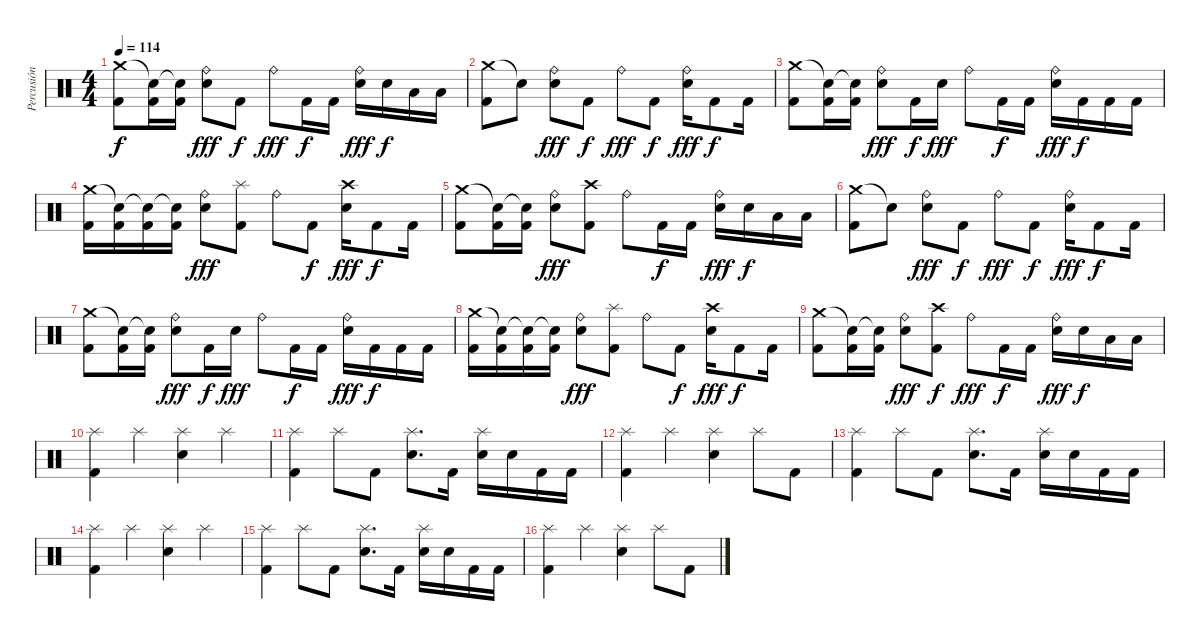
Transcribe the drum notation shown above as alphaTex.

\track ("Percusión" "Percusión") {instrument percussion}
\staff {score}
\articulation defaults
\ts (4 4)
\tempo 114
\clef neutral
\ks c
("Crash medium (hit)" "Kick (hit) 2").8{dy f} ("Snare (hit)"{t} "Kick (hit) 2").16 ("Snare (hit)"{t} "Kick (hit) 2").16 ("Ride (bell)" "Snare (hit) 2").8{dy fff} "Kick (hit) 2".8{dy f} "Ride (bell)".8{dy fff} "Kick (hit) 2".16{dy f} "Kick (hit) 2".16 ("Ride (bell)" "Snare (hit) 2").16{dy fff} "Snare (hit) 2".16{dy f} "Low Floor Tom (hit)".16 "Low Floor Tom (hit)".16 |
("Crash medium (hit)" "Kick (hit) 2").8 "Snare (hit)"{t}.8 ("Ride (bell)" "Snare (hit) 2").8{dy fff} "Kick (hit) 2".8{dy f} "Ride (bell)".8{dy fff} "Kick (hit) 2".8{dy f} ("Ride (bell)" "Snare (hit) 2").16{dy fff} "Kick (hit) 2".8{dy f} "Kick (hit) 2".16 |
("Crash medium (hit)" "Kick (hit) 2").8 ("Snare (hit)"{t} "Kick (hit) 2").16 ("Snare (hit)"{t} "Kick (hit) 2").16 ("Ride (bell)" "Snare (hit) 2").8{dy fff} "Kick (hit) 2".16{dy f} "Snare (hit) 2".16{dy fff} "Ride (bell)".8 "Kick (hit) 2".16{dy f} "Kick (hit) 2".16 ("Ride (bell)" "Snare (hit) 2").16{dy fff} "Kick (hit) 2".16{dy f} "Kick (hit) 2".16 "Kick (hit) 2".16 |
("Crash medium (hit)" "Kick (hit) 2").16 ("Snare (hit)"{t} "Kick (hit) 2").16 ("Snare (hit)"{t} "Kick (hit) 2").16 ("Snare (hit)"{t} "Kick (hit) 2").16 ("Ride (bell)" "Snare (hit) 2").8{dy fff} ("Splash (hit)" "Kick (hit) 2").8 "Ride (bell)".8 "Kick (hit) 2".8{dy f} ("Crash high (hit)" "Snare (hit) 2").16{dy fff} "Kick (hit) 2".8{dy f} "Kick (hit) 2".16 |
("Crash medium (hit)" "Kick (hit) 2").8 ("Snare (hit)"{t} "Kick (hit) 2").16 ("Snare (hit)"{t} "Kick (hit) 2").16 ("Ride (bell)" "Snare (hit) 2").8{dy fff} ("Crash high (hit)" "Kick (hit) 2").8 "Ride (bell)".8 "Kick (hit) 2".16{dy f} "Kick (hit) 2".16 ("Ride (bell)" "Snare (hit) 2").16{dy fff} "Snare (hit) 2".16{dy f} "Low Floor Tom (hit)".16 "Low Floor Tom (hit)".16 |
("Crash medium (hit)" "Kick (hit) 2").8 "Snare (hit)"{t}.8 ("Ride (bell)" "Snare (hit) 2").8{dy fff} "Kick (hit) 2".8{dy f} "Ride (bell)".8{dy fff} "Kick (hit) 2".8{dy f} ("Ride (bell)" "Snare (hit) 2").16{dy fff} "Kick (hit) 2".8{dy f} "Kick (hit) 2".16 |
("Crash medium (hit)" "Kick (hit) 2").8 ("Snare (hit)"{t} "Kick (hit) 2").16 ("Snare (hit)"{t} "Kick (hit) 2").16 ("Ride (bell)" "Snare (hit) 2").8{dy fff} "Kick (hit) 2".16{dy f} "Snare (hit) 2".16{dy fff} "Ride (bell)".8 "Kick (hit) 2".16{dy f} "Kick (hit) 2".16 ("Ride (bell)" "Snare (hit) 2").16{dy fff} "Kick (hit) 2".16{dy f} "Kick (hit) 2".16 "Kick (hit) 2".16 |
("Crash medium (hit)" "Kick (hit) 2").16 ("Snare (hit)"{t} "Kick (hit) 2").16 ("Snare (hit)"{t} "Kick (hit) 2").16 ("Snare (hit)"{t} "Kick (hit) 2").16 ("Ride (bell)" "Snare (hit) 2").8{dy fff} ("Splash (hit)" "Kick (hit) 2").8 "Ride (bell)".8 "Kick (hit) 2".8{dy f} ("Crash high (hit)" "Snare (hit) 2").16{dy fff} "Kick (hit) 2".8{dy f} "Kick (hit) 2".16 |
("Crash medium (hit)" "Kick (hit) 2").8 ("Snare (hit)"{t} "Kick (hit) 2").16 ("Snare (hit)"{t} "Kick (hit) 2").16 ("Ride (bell)" "Snare (hit) 2").8{dy fff} ("Crash high (hit)" "Kick (hit) 2").8{dy f} "Ride (bell)".8{dy fff} "Kick (hit) 2".16{dy f} "Kick (hit) 2".16 ("Ride (bell)" "Snare (hit) 2").16{dy fff} "Snare (hit) 2".16{dy f} "Low Floor Tom (hit)".16 "Low Floor Tom (hit)".16 |
("Splash (hit)" "Kick (hit) 2").4 "Splash (hit)".4 ("Splash (hit)" "Electric Snare (hit)").4 "Splash (hit)".4 |
("Splash (hit)" "Kick (hit) 2").4 "Splash (hit)".8 "Kick (hit) 2".8 ("Splash (hit)" "Electric Snare (hit)").8{d} "Kick (hit) 2".16 ("Splash (hit)" "Electric Snare (hit)").16 "Electric Snare (hit)".16 "Kick (hit) 2".16 "Kick (hit) 2".16 |
("Splash (hit)" "Kick (hit) 2").4 "Splash (hit)".4 ("Splash (hit)" "Electric Snare (hit)").4 "Splash (hit)".8 "Kick (hit) 2".8 |
("Splash (hit)" "Kick (hit) 2").4 "Splash (hit)".8 "Kick (hit) 2".8 ("Splash (hit)" "Electric Snare (hit)").8{d} "Kick (hit) 2".16 ("Splash (hit)" "Electric Snare (hit)").16 "Electric Snare (hit)".16 "Kick (hit) 2".16 "Kick (hit) 2".16 |
("Splash (hit)" "Kick (hit) 2").4 "Splash (hit)".4 ("Splash (hit)" "Electric Snare (hit)").4 "Splash (hit)".4 |
("Splash (hit)" "Kick (hit) 2").4 "Splash (hit)".8 "Kick (hit) 2".8 ("Splash (hit)" "Electric Snare (hit)").8{d} "Kick (hit) 2".16 ("Splash (hit)" "Electric Snare (hit)").16 "Electric Snare (hit)".16 "Kick (hit) 2".16 "Kick (hit) 2".16 |
("Splash (hit)" "Kick (hit) 2").4 "Splash (hit)".4 ("Splash (hit)" "Electric Snare (hit)").4 "Splash (hit)".8 "Kick (hit) 2".8
